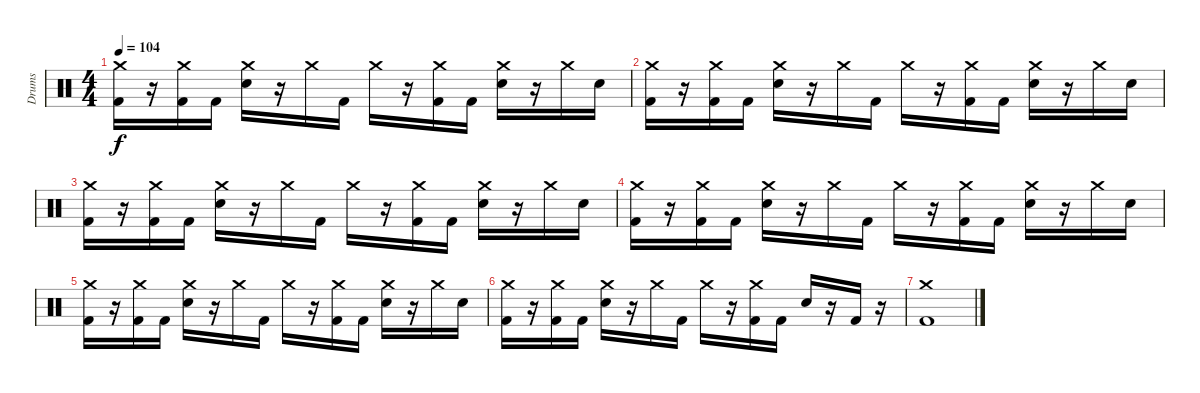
\track ("Drums" "Drums") {instrument percussion}
\staff {score}
\articulation defaults
\ts (4 4)
\tempo 104
\clef neutral
\ks c
("Crash medium (hit)" "Kick (hit) 2").16{dy f} r.16 ("Crash medium (hit)" "Kick (hit) 2").16 "Kick (hit) 2".16 ("Crash medium (hit)" "Snare (hit) 2").16 r.16 "Crash medium (hit)".16 "Kick (hit) 2".16 "Crash medium (hit)".16 r.16 ("Crash medium (hit)" "Kick (hit) 2").16 "Kick (hit) 2".16 ("Crash medium (hit)" "Snare (hit) 2").16 r.16 "Crash medium (hit)".16 "Snare (hit) 2".16 |
("Crash medium (hit)" "Kick (hit) 2").16 r.16 ("Crash medium (hit)" "Kick (hit) 2").16 "Kick (hit) 2".16 ("Crash medium (hit)" "Snare (hit) 2").16 r.16 "Crash medium (hit)".16 "Kick (hit) 2".16 "Crash medium (hit)".16 r.16 ("Crash medium (hit)" "Kick (hit) 2").16 "Kick (hit) 2".16 ("Crash medium (hit)" "Snare (hit) 2").16 r.16 "Crash medium (hit)".16 "Snare (hit) 2".16 |
("Crash medium (hit)" "Kick (hit) 2").16 r.16 ("Crash medium (hit)" "Kick (hit) 2").16 "Kick (hit) 2".16 ("Crash medium (hit)" "Snare (hit) 2").16 r.16 "Crash medium (hit)".16 "Kick (hit) 2".16 "Crash medium (hit)".16 r.16 ("Crash medium (hit)" "Kick (hit) 2").16 "Kick (hit) 2".16 ("Crash medium (hit)" "Snare (hit) 2").16 r.16 "Crash medium (hit)".16 "Snare (hit) 2".16 |
("Crash medium (hit)" "Kick (hit) 2").16 r.16 ("Crash medium (hit)" "Kick (hit) 2").16 "Kick (hit) 2".16 ("Crash medium (hit)" "Snare (hit) 2").16 r.16 "Crash medium (hit)".16 "Kick (hit) 2".16 "Crash medium (hit)".16 r.16 ("Crash medium (hit)" "Kick (hit) 2").16 "Kick (hit) 2".16 ("Crash medium (hit)" "Snare (hit) 2").16 r.16 "Crash medium (hit)".16 "Snare (hit) 2".16 |
("Crash medium (hit)" "Kick (hit) 2").16 r.16 ("Crash medium (hit)" "Kick (hit) 2").16 "Kick (hit) 2".16 ("Crash medium (hit)" "Snare (hit) 2").16 r.16 "Crash medium (hit)".16 "Kick (hit) 2".16 "Crash medium (hit)".16 r.16 ("Crash medium (hit)" "Kick (hit) 2").16 "Kick (hit) 2".16 ("Crash medium (hit)" "Snare (hit) 2").16 r.16 "Crash medium (hit)".16 "Snare (hit) 2".16 |
("Crash medium (hit)" "Kick (hit) 2").16 r.16 ("Crash medium (hit)" "Kick (hit) 2").16 "Kick (hit) 2".16 ("Crash medium (hit)" "Snare (hit) 2").16 r.16 "Crash medium (hit)".16 "Kick (hit) 2".16 "Crash medium (hit)".16 r.16 ("Crash medium (hit)" "Kick (hit) 2").16 "Kick (hit) 2".16 "Snare (hit) 2".16 r.16 "Kick (hit) 2".16 r.16 |
("Crash medium (hit)" "Kick (hit) 2").1
